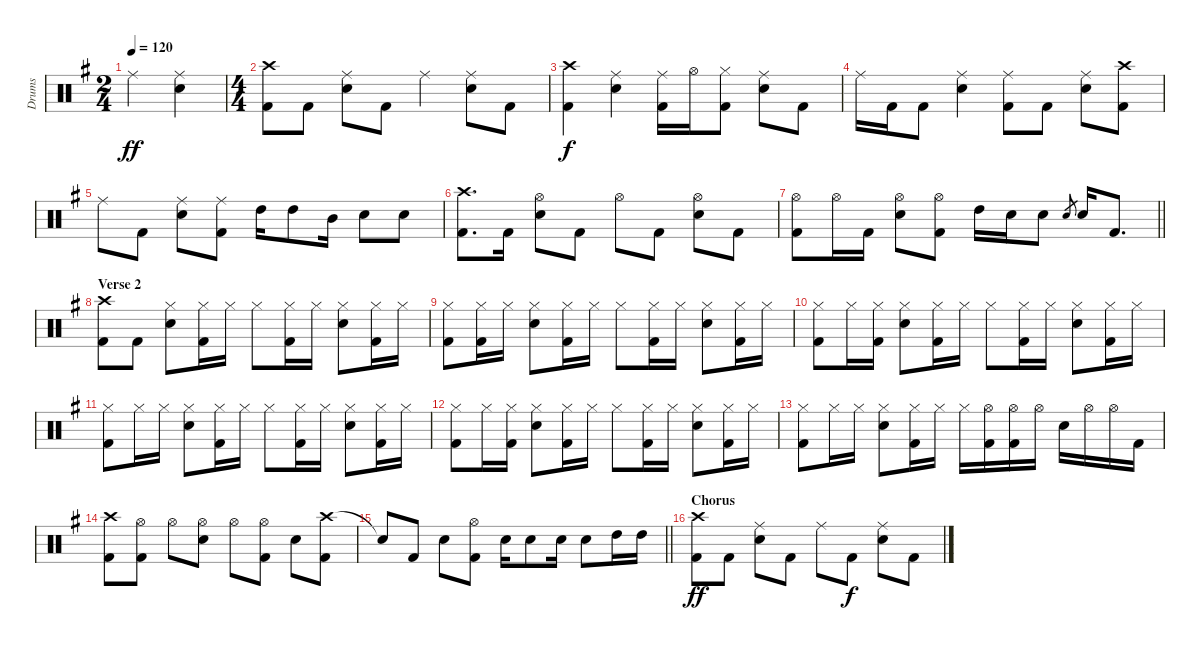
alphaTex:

\track ("Drums" "Drums") {instrument percussion}
\staff {score}
\articulation defaults
\ts (2 4)
\tempo 120
\clef neutral
\ks g "Ride (middle)".4{dy ff}
("Ride (middle)" "Snare (hit) 2").4 |
\ts (4 4)
("Crash high (hit)" "Kick (hit) 2").8 "Kick (hit) 2".8 ("Ride (middle)" "Snare (hit) 2").8 "Kick (hit) 2".8 "Ride (middle)".4 ("Ride (middle)" "Snare (hit) 2").8 "Kick (hit) 2".8 |
("Crash high (hit)" "Kick (hit) 2").4{dy f} ("Ride (middle)" "Snare (hit) 2").4 ("Ride (middle)" "Kick (hit) 2").16 "Hi-Hat (open)".16 ("Hi-Hat (closed)" "Kick (hit) 2").8 ("Ride (middle)" "Snare (hit) 2").8 "Kick (hit) 2".8 |
"Ride (middle)".16 "Kick (hit) 2".16 "Kick (hit) 2".8 ("Ride (middle)" "Snare (hit) 2").4 ("Ride (middle)" "Kick (hit) 2").8 "Kick (hit) 2".8 ("Ride (middle)" "Snare (hit) 2").8 ("Crash high (hit)" "Kick (hit) 2").8 |
"Ride (middle)".8 "Kick (hit) 2".8 ("Ride (middle)" "Snare (hit) 2").8 ("Ride (middle)" "Kick (hit) 2").8 "High Tom (hit)".16 "High Tom (hit)".8 "Mid Tom (hit)".16 "Snare (hit) 2".8 "Snare (hit) 2".8 |
("Crash high (hit)" "Kick (hit) 2").8{d} "Kick (hit) 2".16 ("Hi-Hat (open)" "Snare (hit) 2").8 "Kick (hit) 2".8 "Hi-Hat (open)".8 "Kick (hit) 2".8 ("Hi-Hat (open)" "Snare (hit) 2").8 "Kick (hit) 2".8 |
\barLineRight lightlight
("Hi-Hat (open)" "Kick (hit) 2").8 "Hi-Hat (open)".16 "Kick (hit) 2".16 ("Hi-Hat (open)" "Snare (hit) 2").8 ("Hi-Hat (open)" "Kick (hit) 2").8 "High Tom (hit)".16 "Snare (hit) 2".16 "Snare (hit) 2".8 "Snare (hit) 2".8{gr} "Snare (hit) 2".16 "Kick (hit) 2".8{d} |
\section ("" "Verse 2")
("Crash high (hit)" "Kick (hit) 2").8 "Kick (hit) 2".8 ("Hi-Hat (closed)" "Snare (hit) 2").8 ("Hi-Hat (closed)" "Kick (hit) 2").16 "Hi-Hat (closed)".16 "Hi-Hat (closed)".8 ("Hi-Hat (closed)" "Kick (hit) 2").16 "Hi-Hat (closed)".16 ("Hi-Hat (closed)" "Snare (hit) 2").8 ("Hi-Hat (closed)" "Kick (hit) 2").16 "Hi-Hat (closed)".16 |
("Hi-Hat (closed)" "Kick (hit) 2").8 ("Hi-Hat (closed)" "Kick (hit) 2").16 "Hi-Hat (closed)".16 ("Hi-Hat (closed)" "Snare (hit) 2").8 ("Hi-Hat (closed)" "Kick (hit) 2").16 "Hi-Hat (closed)".16 "Hi-Hat (closed)".8 ("Hi-Hat (closed)" "Kick (hit) 2").16 "Hi-Hat (closed)".16 ("Hi-Hat (closed)" "Snare (hit) 2").8 ("Hi-Hat (closed)" "Kick (hit) 2").16 "Hi-Hat (closed)".16 |
("Hi-Hat (closed)" "Kick (hit) 2").8 "Hi-Hat (closed)".16 ("Hi-Hat (closed)" "Kick (hit) 2").16 ("Hi-Hat (closed)" "Snare (hit) 2").8 ("Hi-Hat (closed)" "Kick (hit) 2").16 "Hi-Hat (closed)".16 "Hi-Hat (closed)".8 ("Hi-Hat (closed)" "Kick (hit) 2").16 "Hi-Hat (closed)".16 ("Hi-Hat (closed)" "Snare (hit) 2").8 ("Hi-Hat (closed)" "Kick (hit) 2").16 "Hi-Hat (closed)".16 |
("Hi-Hat (closed)" "Kick (hit) 2").8 "Hi-Hat (closed)".16 "Hi-Hat (closed)".16 ("Hi-Hat (closed)" "Snare (hit) 2").8 ("Hi-Hat (closed)" "Kick (hit) 2").16 "Hi-Hat (closed)".16 "Hi-Hat (closed)".8 ("Hi-Hat (closed)" "Kick (hit) 2").16 "Hi-Hat (closed)".16 ("Hi-Hat (closed)" "Snare (hit) 2").8 ("Hi-Hat (closed)" "Kick (hit) 2").16 "Hi-Hat (closed)".16 |
("Hi-Hat (closed)" "Kick (hit) 2").8 "Hi-Hat (closed)".16 ("Hi-Hat (closed)" "Kick (hit) 2").16 ("Hi-Hat (closed)" "Snare (hit) 2").8 ("Hi-Hat (closed)" "Kick (hit) 2").16 "Hi-Hat (closed)".16 "Hi-Hat (closed)".8 ("Hi-Hat (closed)" "Kick (hit) 2").16 "Hi-Hat (closed)".16 ("Hi-Hat (closed)" "Snare (hit) 2").8 ("Hi-Hat (closed)" "Kick (hit) 2").16 "Hi-Hat (closed)".16 |
("Hi-Hat (closed)" "Kick (hit) 2").8 "Hi-Hat (closed)".16 "Hi-Hat (closed)".16 ("Hi-Hat (closed)" "Snare (hit) 2").8 ("Hi-Hat (closed)" "Kick (hit) 2").16 "Hi-Hat (closed)".16 "Hi-Hat (closed)".16 ("Hi-Hat (open)" "Kick (hit) 2").16 ("Hi-Hat (open)" "Kick (hit) 2").16 "Hi-Hat (open)".16 "Snare (hit) 2".16 "Hi-Hat (open)".16 "Hi-Hat (open)".16 "Kick (hit) 2".16 |
("Crash high (hit)" "Kick (hit) 2").8 ("Hi-Hat (open)" "Kick (hit) 2").8 "Hi-Hat (open)".8 ("Hi-Hat (open)" "Snare (hit) 2").8 "Hi-Hat (open)".8 ("Hi-Hat (open)" "Kick (hit) 2").8 "Snare (hit) 2".8 ("Crash high (hit)" "Kick (hit) 2").8 |
\barLineRight lightlight "Snare (hit)"{t}.8 "Kick (hit) 2".8 "Snare (hit) 2".8
("Hi-Hat (open)" "Kick (hit) 2").8 "Snare (hit) 2".16 "Snare (hit) 2".8 "Snare (hit) 2".16 "Snare (hit) 2".8 "High Tom (hit)".16 "High Tom (hit)".16 |
\section ("" "Chorus")
("Crash high (hit)" "Kick (hit) 2").8{dy ff} "Kick (hit) 2".8 ("Ride (middle)" "Snare (hit) 2").8 "Kick (hit) 2".8 "Ride (middle)".8 "Kick (hit) 2".8{dy f} ("Ride (middle)" "Snare (hit) 2").8 "Kick (hit) 2".8
